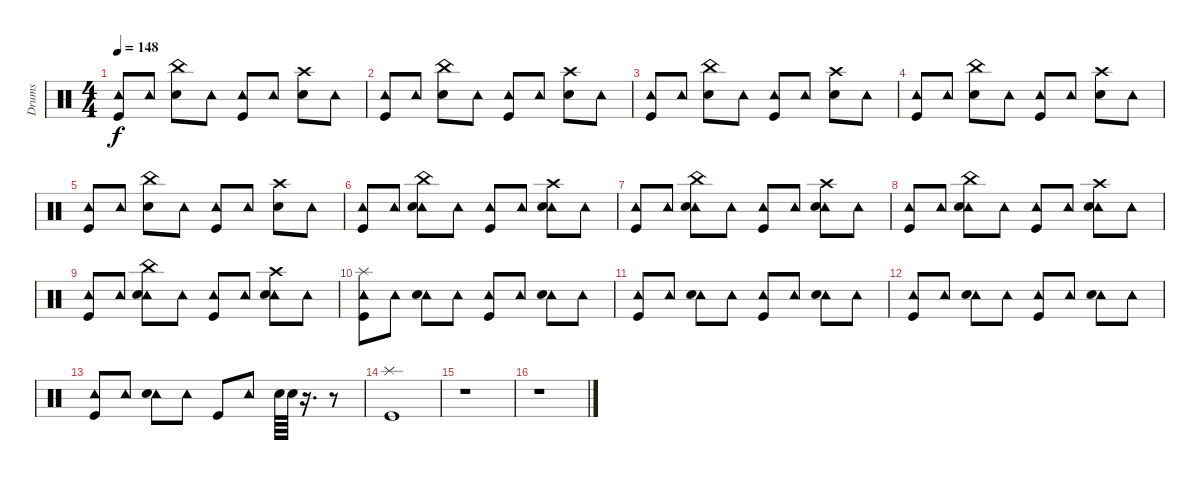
\track ("Drums" "Drums") {instrument percussion}
\staff {score}
\articulation defaults
\ts (4 4)
\tempo 148
\clef neutral
\ks c
("Tambourine (hit)" "Kick (hit)").8{dy f} "Tambourine (hit)".8 ("Snare (hit) 2" "China (hit)").8 "Tambourine (hit)".8 ("Tambourine (hit)" "Kick (hit)").8 "Tambourine (hit)".8 ("Snare (hit) 2" "Crash high (hit)").8 "Tambourine (hit)".8 |
("Tambourine (hit)" "Kick (hit)").8 "Tambourine (hit)".8 ("Snare (hit) 2" "China (hit)").8 "Tambourine (hit)".8 ("Tambourine (hit)" "Kick (hit)").8 "Tambourine (hit)".8 ("Snare (hit) 2" "Crash high (hit)").8 "Tambourine (hit)".8 |
("Tambourine (hit)" "Kick (hit)").8 "Tambourine (hit)".8 ("Snare (hit) 2" "China (hit)").8 "Tambourine (hit)".8 ("Tambourine (hit)" "Kick (hit)").8 "Tambourine (hit)".8 ("Snare (hit) 2" "Crash high (hit)").8 "Tambourine (hit)".8 |
("Tambourine (hit)" "Kick (hit)").8 "Tambourine (hit)".8 ("Snare (hit) 2" "China (hit)").8 "Tambourine (hit)".8 ("Tambourine (hit)" "Kick (hit)").8 "Tambourine (hit)".8 ("Snare (hit) 2" "Crash high (hit)").8 "Tambourine (hit)".8 |
("Tambourine (hit)" "Kick (hit)").8 "Tambourine (hit)".8 ("Snare (hit) 2" "China (hit)").8 "Tambourine (hit)".8 ("Tambourine (hit)" "Kick (hit)").8 "Tambourine (hit)".8 ("Snare (hit) 2" "Crash high (hit)").8 "Tambourine (hit)".8 |
("Tambourine (hit)" "Kick (hit)").8 "Tambourine (hit)".8 ("Tambourine (hit)" "Snare (hit) 2" "China (hit)").8 "Tambourine (hit)".8 ("Tambourine (hit)" "Kick (hit)").8 "Tambourine (hit)".8 ("Tambourine (hit)" "Snare (hit) 2" "Crash high (hit)").8 "Tambourine (hit)".8 |
("Tambourine (hit)" "Kick (hit)").8 "Tambourine (hit)".8 ("Tambourine (hit)" "Snare (hit) 2" "China (hit)").8 "Tambourine (hit)".8 ("Tambourine (hit)" "Kick (hit)").8 "Tambourine (hit)".8 ("Tambourine (hit)" "Snare (hit) 2" "Crash high (hit)").8 "Tambourine (hit)".8 |
("Tambourine (hit)" "Kick (hit)").8 "Tambourine (hit)".8 ("Tambourine (hit)" "Snare (hit) 2" "China (hit)").8 "Tambourine (hit)".8 ("Tambourine (hit)" "Kick (hit)").8 "Tambourine (hit)".8 ("Tambourine (hit)" "Snare (hit) 2" "Crash high (hit)").8 "Tambourine (hit)".8 |
("Tambourine (hit)" "Kick (hit)").8 "Tambourine (hit)".8 ("Tambourine (hit)" "Snare (hit) 2" "China (hit)").8 "Tambourine (hit)".8 ("Tambourine (hit)" "Kick (hit)").8 "Tambourine (hit)".8 ("Tambourine (hit)" "Snare (hit) 2" "Crash high (hit)").8 "Tambourine (hit)".8 |
("Tambourine (hit)" "Kick (hit)" "Splash (hit)").8 "Tambourine (hit)".8 ("Tambourine (hit)" "Snare (hit) 2").8 "Tambourine (hit)".8 ("Tambourine (hit)" "Kick (hit)").8 "Tambourine (hit)".8 ("Tambourine (hit)" "Snare (hit) 2").8 "Tambourine (hit)".8 |
("Tambourine (hit)" "Kick (hit)").8 "Tambourine (hit)".8 ("Tambourine (hit)" "Snare (hit) 2").8 "Tambourine (hit)".8 ("Tambourine (hit)" "Kick (hit)").8 "Tambourine (hit)".8 ("Tambourine (hit)" "Snare (hit) 2").8 "Tambourine (hit)".8 |
("Tambourine (hit)" "Kick (hit)").8 "Tambourine (hit)".8 ("Tambourine (hit)" "Snare (hit) 2").8 "Tambourine (hit)".8 ("Tambourine (hit)" "Kick (hit)").8 "Tambourine (hit)".8 ("Tambourine (hit)" "Snare (hit) 2").8 "Tambourine (hit)".8 |
("Tambourine (hit)" "Kick (hit)").8 "Tambourine (hit)".8 ("Tambourine (hit)" "Snare (hit) 2").8 "Tambourine (hit)".8 "Kick (hit)".8 "Tambourine (hit)".8 "Snare (hit) 2".64 "Snare (hit) 2".64 r.16{d} r.8 |
("Kick (hit)" "Splash (hit)").1 |
r.1 |
r.1
